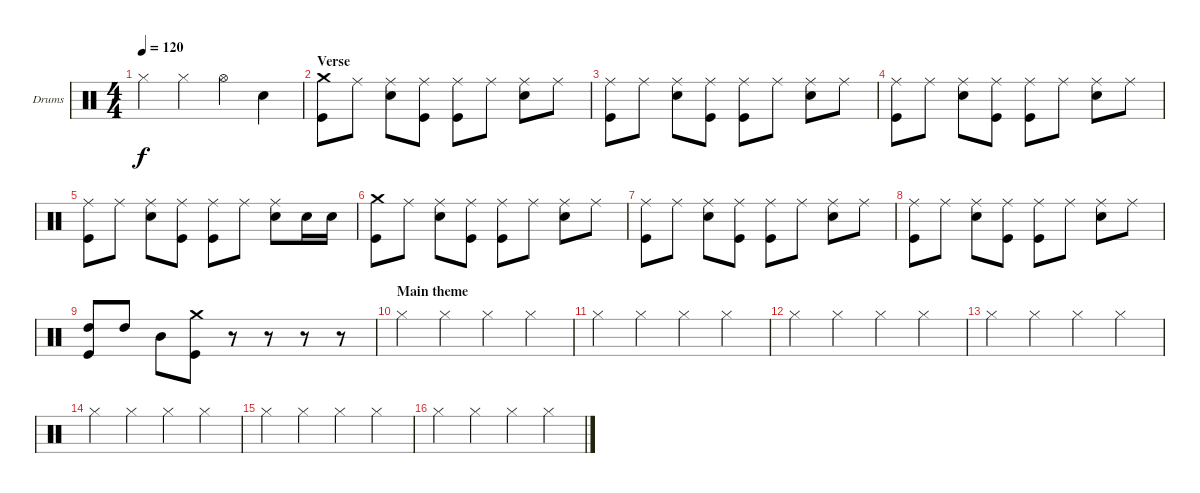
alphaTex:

\bracketExtendMode groupsimilarinstruments
\firstSystemTrackNameOrientation horizontal
\otherSystemsTrackNameOrientation horizontal
\track ("Drumkit" "Drums") {instrument percussion}
\staff {score}
\articulation defaults
\ts (4 4)
\tempo 120
\clef neutral
\ks c "Hi-Hat (closed)".4{dy f} "Hi-Hat (closed)".4 "Hi-Hat (open)".4 "Snare (hit) 2".4
|
\section ("" "Verse")
("Crash medium (hit)" "Kick (hit)").8 "Ride (middle)".8 ("Ride (middle)" "Snare (hit) 2").8 ("Ride (middle)" "Kick (hit)").8 ("Ride (middle)" "Kick (hit)").8 "Ride (middle)".8 ("Ride (middle)" "Snare (hit) 2").8 "Ride (middle)".8 |
("Ride (middle)" "Kick (hit)").8 "Ride (middle)".8 ("Ride (middle)" "Snare (hit) 2").8 ("Ride (middle)" "Kick (hit)").8 ("Ride (middle)" "Kick (hit)").8 "Ride (middle)".8 ("Ride (middle)" "Snare (hit) 2").8 "Ride (middle)".8 |
("Ride (middle)" "Kick (hit)").8 "Ride (middle)".8 ("Ride (middle)" "Snare (hit) 2").8 ("Ride (middle)" "Kick (hit)").8 ("Ride (middle)" "Kick (hit)").8 "Ride (middle)".8 ("Ride (middle)" "Snare (hit) 2").8 "Ride (middle)".8 |
("Ride (middle)" "Kick (hit)").8 "Ride (middle)".8 ("Ride (middle)" "Snare (hit) 2").8 ("Ride (middle)" "Kick (hit)").8 ("Ride (middle)" "Kick (hit)").8 "Ride (middle)".8 ("Ride (middle)" "Snare (hit) 2").8 "Snare (hit) 2".16 "Snare (hit) 2".16 |
("Crash medium (hit)" "Kick (hit)").8 "Ride (middle)".8 ("Ride (middle)" "Snare (hit) 2").8 ("Ride (middle)" "Kick (hit)").8 ("Ride (middle)" "Kick (hit)").8 "Ride (middle)".8 ("Ride (middle)" "Snare (hit) 2").8 "Ride (middle)".8 |
("Ride (middle)" "Kick (hit)").8 "Ride (middle)".8 ("Ride (middle)" "Snare (hit) 2").8 ("Ride (middle)" "Kick (hit)").8 ("Ride (middle)" "Kick (hit)").8 "Ride (middle)".8 ("Ride (middle)" "Snare (hit) 2").8 "Ride (middle)".8 |
("Ride (middle)" "Kick (hit)").8 "Ride (middle)".8 ("Ride (middle)" "Snare (hit) 2").8 ("Ride (middle)" "Kick (hit)").8 ("Ride (middle)" "Kick (hit)").8 "Ride (middle)".8 ("Ride (middle)" "Snare (hit) 2").8 "Ride (middle)".8 |
("High Tom (hit)" "Kick (hit)").8 "High Tom (hit)".8 "Mid Tom (hit)".8 ("Crash medium (hit)" "Kick (hit)").8 r.8 r.8 r.8 r.8 |
\section ("" "Main theme")
"Hi-Hat (closed)".4 "Hi-Hat (closed)".4 "Hi-Hat (closed)".4 "Hi-Hat (closed)".4 |
"Hi-Hat (closed)".4 "Hi-Hat (closed)".4 "Hi-Hat (closed)".4 "Hi-Hat (closed)".4 |
"Hi-Hat (closed)".4 "Hi-Hat (closed)".4 "Hi-Hat (closed)".4 "Hi-Hat (closed)".4 |
"Hi-Hat (closed)".4 "Hi-Hat (closed)".4 "Hi-Hat (closed)".4 "Hi-Hat (closed)".4 |
"Hi-Hat (closed)".4 "Hi-Hat (closed)".4 "Hi-Hat (closed)".4 "Hi-Hat (closed)".4 |
"Hi-Hat (closed)".4 "Hi-Hat (closed)".4 "Hi-Hat (closed)".4 "Hi-Hat (closed)".4 |
"Hi-Hat (closed)".4 "Hi-Hat (closed)".4 "Hi-Hat (closed)".4 "Hi-Hat (closed)".4
